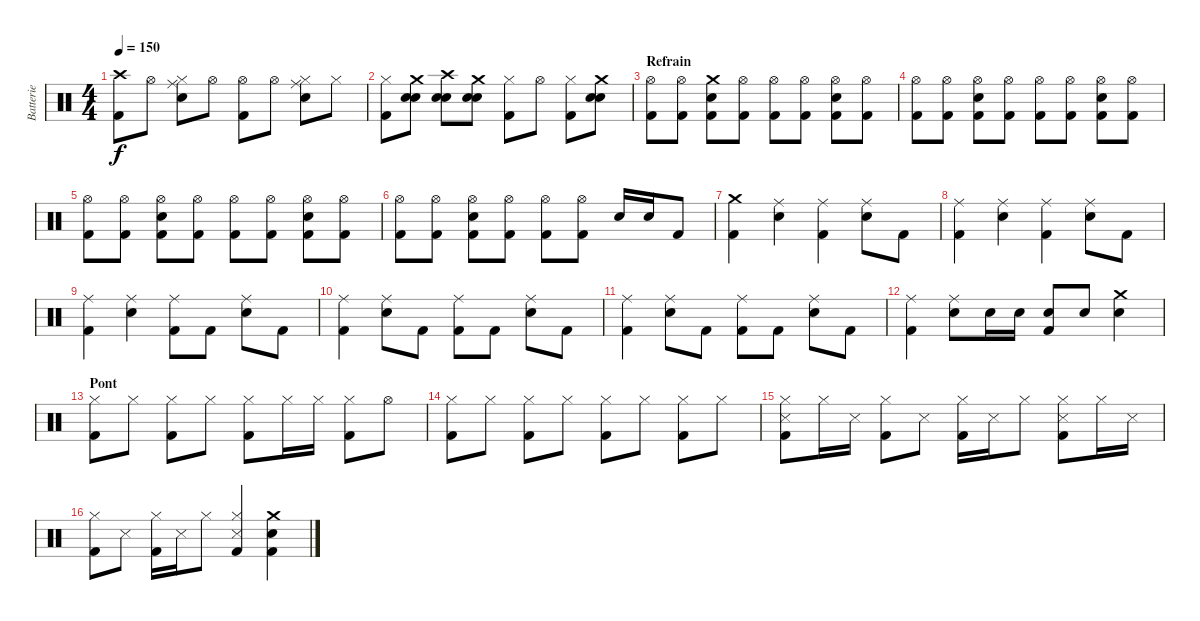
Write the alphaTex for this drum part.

\track ("Batterie" "Batterie") {instrument percussion}
\staff {score}
\articulation defaults
\ts (4 4)
\tempo 150
\clef neutral
\ks c
("Crash high (hit)" "Kick (hit) 2").8{dy f} "Hi-Hat (open)".8 ("Hi-Hat (closed)" "Electric Snare (hit)" "Ride (middle)").8 "Hi-Hat (open)".8 ("Hi-Hat (open)" "Kick (hit) 2").8 "Hi-Hat (open)".8 ("Hi-Hat (closed)" "Electric Snare (hit)" "Ride (middle)").8 "Hi-Hat (closed)".8 |
("Hi-Hat (closed)" "Kick (hit) 2").8 ("Crash medium (hit)" "Electric Snare (hit)" "Electric Snare (hit)").8 ("Crash high (hit)" "Electric Snare (hit)" "Electric Snare (hit)").8 ("Crash medium (hit)" "Electric Snare (hit)" "Electric Snare (hit)").8 ("Hi-Hat (closed)" "Kick (hit) 2").8 "Hi-Hat (open)".8 ("Hi-Hat (closed)" "Kick (hit) 2").8 ("Electric Snare (hit)" "Electric Snare (hit)" "Crash medium (hit)").8 |
\section ("" "Refrain")
("Hi-Hat (open)" "Kick (hit) 2").8 ("Hi-Hat (open)" "Kick (hit) 2").8 ("Crash medium (hit)" "Kick (hit) 2" "Electric Snare (hit)").8 ("Hi-Hat (open)" "Kick (hit) 2").8 ("Hi-Hat (open)" "Kick (hit) 2").8 ("Hi-Hat (open)" "Kick (hit) 2").8 ("Hi-Hat (open)" "Kick (hit) 2" "Electric Snare (hit)").8 ("Hi-Hat (open)" "Kick (hit) 2").8 |
("Hi-Hat (open)" "Kick (hit) 2").8 ("Hi-Hat (open)" "Kick (hit) 2").8 ("Hi-Hat (open)" "Kick (hit) 2" "Electric Snare (hit)").8 ("Hi-Hat (open)" "Kick (hit) 2").8 ("Hi-Hat (open)" "Kick (hit) 2").8 ("Hi-Hat (open)" "Kick (hit) 2").8 ("Hi-Hat (open)" "Kick (hit) 2" "Electric Snare (hit)").8 ("Hi-Hat (open)" "Kick (hit) 2").8 |
("Hi-Hat (open)" "Kick (hit) 2").8 ("Hi-Hat (open)" "Kick (hit) 2").8 ("Hi-Hat (open)" "Kick (hit) 2" "Electric Snare (hit)").8 ("Hi-Hat (open)" "Kick (hit) 2").8 ("Hi-Hat (open)" "Kick (hit) 2").8 ("Hi-Hat (open)" "Kick (hit) 2").8 ("Hi-Hat (open)" "Kick (hit) 2" "Electric Snare (hit)").8 ("Hi-Hat (open)" "Kick (hit) 2").8 |
("Hi-Hat (open)" "Kick (hit) 2").8 ("Hi-Hat (open)" "Kick (hit) 2").8 ("Hi-Hat (open)" "Kick (hit) 2" "Electric Snare (hit)").8 ("Hi-Hat (open)" "Kick (hit) 2").8 ("Hi-Hat (open)" "Kick (hit) 2").8 ("Hi-Hat (open)" "Kick (hit) 2").8 "Electric Snare (hit)".16 "Electric Snare (hit)".16 "Kick (hit) 2".8 |
("Crash medium (hit)" "Kick (hit) 2").4 ("Ride (middle)" "Electric Snare (hit)").4 ("Ride (middle)" "Kick (hit) 2").4 ("Ride (middle)" "Electric Snare (hit)").8 "Kick (hit) 2".8 |
("Ride (middle)" "Kick (hit) 2").4 ("Ride (middle)" "Electric Snare (hit)").4 ("Ride (middle)" "Kick (hit) 2").4 ("Ride (middle)" "Electric Snare (hit)").8 "Kick (hit) 2".8 |
("Ride (middle)" "Kick (hit) 2").4 ("Ride (middle)" "Electric Snare (hit)").4 ("Ride (middle)" "Kick (hit) 2").8 "Kick (hit) 2".8 ("Ride (middle)" "Electric Snare (hit)").8 "Kick (hit) 2".8 |
("Ride (middle)" "Kick (hit) 2").4 ("Ride (middle)" "Electric Snare (hit)").8 "Kick (hit) 2".8 ("Ride (middle)" "Kick (hit) 2").8 "Kick (hit) 2".8 ("Ride (middle)" "Electric Snare (hit)").8 "Kick (hit) 2".8 |
("Ride (middle)" "Kick (hit) 2").4 ("Ride (middle)" "Electric Snare (hit)").8 "Kick (hit) 2".8 ("Ride (middle)" "Kick (hit) 2").8 "Kick (hit) 2".8 ("Ride (middle)" "Electric Snare (hit)").8 "Kick (hit) 2".8 |
("Ride (middle)" "Kick (hit) 2").4 ("Ride (middle)" "Electric Snare (hit)").8 "Electric Snare (hit)".16 "Electric Snare (hit)".16 ("Electric Snare (hit)" "Kick (hit) 2").8 "Electric Snare (hit)".8 ("Crash medium (hit)" "Electric Snare (hit)").4 |
\section ("" "Pont")
("Hi-Hat (closed)" "Kick (hit) 2").8 "Hi-Hat (closed)".8 ("Hi-Hat (closed)" "Kick (hit) 2").8 "Hi-Hat (closed)".8 ("Hi-Hat (closed)" "Kick (hit) 2").8 "Hi-Hat (closed)".16 "Hi-Hat (closed)".16 ("Hi-Hat (closed)" "Kick (hit) 2").8 "Hi-Hat (open)".8 |
("Hi-Hat (closed)" "Kick (hit) 2").8 "Hi-Hat (closed)".8 ("Hi-Hat (closed)" "Kick (hit) 2").8 "Hi-Hat (closed)".8 ("Hi-Hat (closed)" "Kick (hit) 2").8 "Hi-Hat (closed)".8 ("Hi-Hat (closed)" "Kick (hit) 2").8 "Hi-Hat (closed)".8 |
("Hi-Hat (closed)" "Kick (hit) 2" "Snare (side stick) 3").8 "Hi-Hat (closed)".16 "Snare (side stick) 3".16 ("Hi-Hat (closed)" "Kick (hit) 2").8 "Snare (side stick) 3".8 ("Hi-Hat (closed)" "Kick (hit) 2").16 "Snare (side stick) 3".16 "Hi-Hat (closed)".8 ("Hi-Hat (closed)" "Kick (hit) 2" "Snare (side stick) 3").8 "Hi-Hat (closed)".16 "Snare (side stick) 3".16 |
("Hi-Hat (closed)" "Kick (hit) 2").8 "Snare (side stick) 3".8 ("Hi-Hat (closed)" "Kick (hit) 2").16 "Snare (side stick) 3".16 "Hi-Hat (closed)".8 ("Hi-Hat (closed)" "Kick (hit) 2" "Snare (side stick) 3").4 ("Crash medium (hit)" "Kick (hit) 2" "Electric Snare (hit)").4
